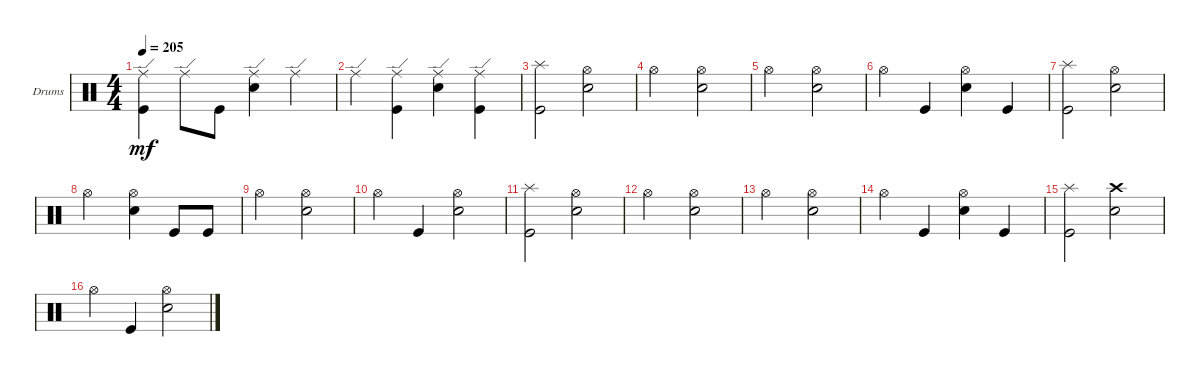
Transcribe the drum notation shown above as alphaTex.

\bracketExtendMode groupsimilarinstruments
\firstSystemTrackNameOrientation horizontal
\otherSystemsTrackNameOrientation horizontal
\track ("Drumkit" "Drums") {instrument percussion}
\staff {score}
\articulation defaults
\ts (4 4)
\tempo 205
\clef neutral
\ks c
("Ride (edge)" "Kick (hit)").4{dy mf} "Ride (edge)".8 "Kick (hit)".8 ("Snare (hit) 2" "Ride (edge)").4 "Ride (edge)".4 |
"Ride (edge)".4 ("Ride (edge)" "Kick (hit)").4 ("Ride (edge)" "Snare (hit) 2").4 ("Ride (edge)" "Kick (hit)").4 |
("Splash (hit)" "Kick (hit)").2 ("Snare (hit) 2" "Hi-Hat (open)").2 |
"Hi-Hat (open)".2 ("Snare (hit) 2" "Hi-Hat (open)").2 |
"Hi-Hat (open)".2 ("Snare (hit) 2" "Hi-Hat (open)").2 |
"Hi-Hat (open)".4 "Kick (hit)".4 ("Snare (hit) 2" "Hi-Hat (open)").4 "Kick (hit)".4 |
("Splash (hit)" "Kick (hit)").2 ("Snare (hit) 2" "Hi-Hat (open)").2 |
"Hi-Hat (open)".2 ("Snare (hit) 2" "Hi-Hat (open)").4 "Kick (hit)".8 "Kick (hit)".8 |
"Hi-Hat (open)".2 ("Snare (hit) 2" "Hi-Hat (open)").2 |
"Hi-Hat (open)".4 "Kick (hit)".4 ("Snare (hit) 2" "Hi-Hat (open)").2 |
("Splash (hit)" "Kick (hit)").2 ("Snare (hit) 2" "Hi-Hat (open)").2 |
"Hi-Hat (open)".2 ("Snare (hit) 2" "Hi-Hat (open)").2 |
"Hi-Hat (open)".2 ("Snare (hit) 2" "Hi-Hat (open)").2 |
"Hi-Hat (open)".4 "Kick (hit)".4 ("Snare (hit) 2" "Hi-Hat (open)").4 "Kick (hit)".4 |
("Kick (hit)" "Splash (hit)").2 ("Crash high (hit)" "Snare (hit) 2").2 |
"Hi-Hat (open)".4 "Kick (hit)".4 ("Snare (hit) 2" "Hi-Hat (open)").2
